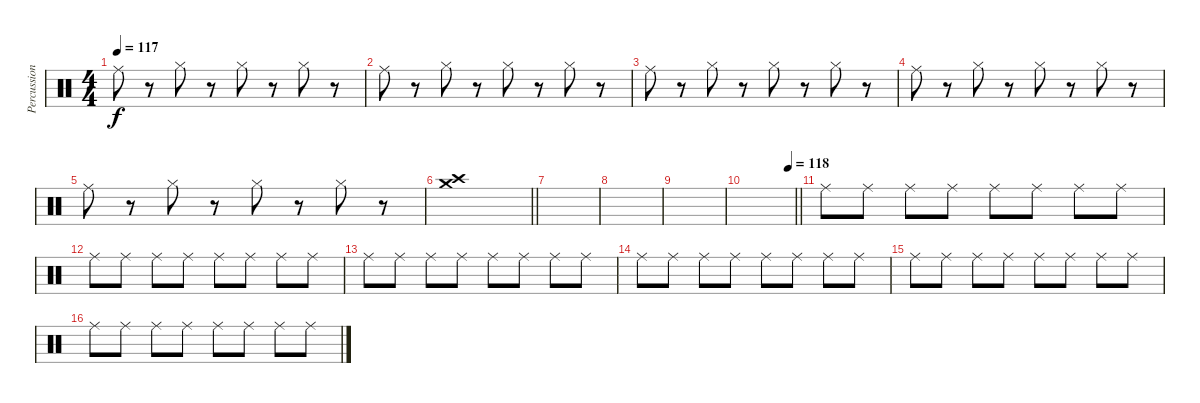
\track ("Percussion" "Percussion") {instrument percussion}
\staff {score}
\articulation defaults
\ts (4 4)
\tempo 117
\clef neutral
\ks c "Ride (middle)".8{dy f}
r.8 "Hi-Hat (closed)".8 r.8 "Hi-Hat (closed)".8 r.8 "Hi-Hat (closed)".8 r.8 |
"Ride (middle)".8 r.8 "Hi-Hat (closed)".8 r.8 "Hi-Hat (closed)".8 r.8 "Hi-Hat (closed)".8 r.8 |
"Ride (middle)".8 r.8 "Hi-Hat (closed)".8 r.8 "Hi-Hat (closed)".8 r.8 "Hi-Hat (closed)".8 r.8 |
"Ride (middle)".8 r.8 "Hi-Hat (closed)".8 r.8 "Hi-Hat (closed)".8 r.8 "Hi-Hat (closed)".8 r.8 |
"Ride (middle)".8 r.8 "Hi-Hat (closed)".8 r.8 "Hi-Hat (closed)".8 r.8 "Hi-Hat (closed)".8 r.8 |
\barLineRight lightlight
("Crash high (hit)" "Crash medium (hit)").1 |
|
|
|
\tempo (118 0.875)
\barLineRight lightlight
|
"Ride (middle)".8 "Ride (middle)".8 "Ride (middle)".8 "Ride (middle)".8 "Ride (middle)".8 "Ride (middle)".8 "Ride (middle)".8 "Ride (middle)".8 |
"Ride (middle)".8 "Ride (middle)".8 "Ride (middle)".8 "Ride (middle)".8 "Ride (middle)".8 "Ride (middle)".8 "Ride (middle)".8 "Ride (middle)".8 |
"Ride (middle)".8 "Ride (middle)".8 "Ride (middle)".8 "Ride (middle)".8 "Ride (middle)".8 "Ride (middle)".8 "Ride (middle)".8 "Ride (middle)".8 |
"Ride (middle)".8 "Ride (middle)".8 "Ride (middle)".8 "Ride (middle)".8 "Ride (middle)".8 "Ride (middle)".8 "Ride (middle)".8 "Ride (middle)".8 |
"Ride (middle)".8 "Ride (middle)".8 "Ride (middle)".8 "Ride (middle)".8 "Ride (middle)".8 "Ride (middle)".8 "Ride (middle)".8 "Ride (middle)".8 |
"Ride (middle)".8 "Ride (middle)".8 "Ride (middle)".8 "Ride (middle)".8 "Ride (middle)".8 "Ride (middle)".8 "Ride (middle)".8 "Ride (middle)".8
